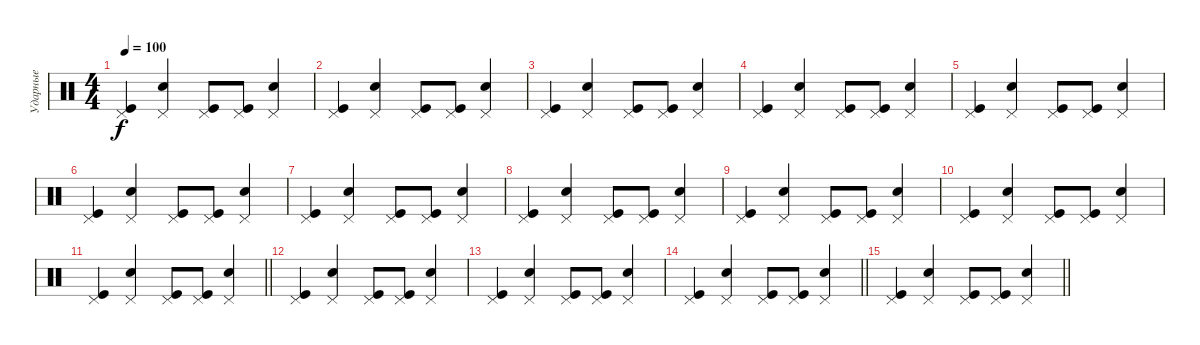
\track ("Ударные" "Ударные") {instrument percussion}
\staff {score}
\articulation defaults
\ts (4 4)
\tempo 100
\clef neutral
\ks c
("Pedal Hi-Hat (hit)" "Kick (hit)").4{dy f} ("Pedal Hi-Hat (hit)" "Snare (hit) 2").4 ("Pedal Hi-Hat (hit)" "Kick (hit)").8 ("Pedal Hi-Hat (hit)" "Kick (hit)").8 ("Pedal Hi-Hat (hit)" "Snare (hit) 2").4 |
("Pedal Hi-Hat (hit)" "Kick (hit)").4 ("Pedal Hi-Hat (hit)" "Snare (hit) 2").4 ("Pedal Hi-Hat (hit)" "Kick (hit)").8 ("Pedal Hi-Hat (hit)" "Kick (hit)").8 ("Pedal Hi-Hat (hit)" "Snare (hit) 2").4 |
("Pedal Hi-Hat (hit)" "Kick (hit)").4 ("Pedal Hi-Hat (hit)" "Snare (hit) 2").4 ("Pedal Hi-Hat (hit)" "Kick (hit)").8 ("Pedal Hi-Hat (hit)" "Kick (hit)").8 ("Pedal Hi-Hat (hit)" "Snare (hit) 2").4 |
("Pedal Hi-Hat (hit)" "Kick (hit)").4 ("Pedal Hi-Hat (hit)" "Snare (hit) 2").4 ("Pedal Hi-Hat (hit)" "Kick (hit)").8 ("Pedal Hi-Hat (hit)" "Kick (hit)").8 ("Pedal Hi-Hat (hit)" "Snare (hit) 2").4 |
("Pedal Hi-Hat (hit)" "Kick (hit)").4 ("Pedal Hi-Hat (hit)" "Snare (hit) 2").4 ("Pedal Hi-Hat (hit)" "Kick (hit)").8 ("Pedal Hi-Hat (hit)" "Kick (hit)").8 ("Pedal Hi-Hat (hit)" "Snare (hit) 2").4 |
("Pedal Hi-Hat (hit)" "Kick (hit)").4 ("Pedal Hi-Hat (hit)" "Snare (hit) 2").4 ("Pedal Hi-Hat (hit)" "Kick (hit)").8 ("Pedal Hi-Hat (hit)" "Kick (hit)").8 ("Pedal Hi-Hat (hit)" "Snare (hit) 2").4 |
("Pedal Hi-Hat (hit)" "Kick (hit)").4 ("Pedal Hi-Hat (hit)" "Snare (hit) 2").4 ("Pedal Hi-Hat (hit)" "Kick (hit)").8 ("Pedal Hi-Hat (hit)" "Kick (hit)").8 ("Pedal Hi-Hat (hit)" "Snare (hit) 2").4 |
("Pedal Hi-Hat (hit)" "Kick (hit)").4 ("Pedal Hi-Hat (hit)" "Snare (hit) 2").4 ("Pedal Hi-Hat (hit)" "Kick (hit)").8 ("Pedal Hi-Hat (hit)" "Kick (hit)").8 ("Pedal Hi-Hat (hit)" "Snare (hit) 2").4 |
("Pedal Hi-Hat (hit)" "Kick (hit)").4 ("Pedal Hi-Hat (hit)" "Snare (hit) 2").4 ("Pedal Hi-Hat (hit)" "Kick (hit)").8 ("Pedal Hi-Hat (hit)" "Kick (hit)").8 ("Pedal Hi-Hat (hit)" "Snare (hit) 2").4 |
("Pedal Hi-Hat (hit)" "Kick (hit)").4 ("Pedal Hi-Hat (hit)" "Snare (hit) 2").4 ("Pedal Hi-Hat (hit)" "Kick (hit)").8 ("Pedal Hi-Hat (hit)" "Kick (hit)").8 ("Pedal Hi-Hat (hit)" "Snare (hit) 2").4 |
\barLineRight lightlight
("Pedal Hi-Hat (hit)" "Kick (hit)").4 ("Pedal Hi-Hat (hit)" "Snare (hit) 2").4 ("Pedal Hi-Hat (hit)" "Kick (hit)").8 ("Pedal Hi-Hat (hit)" "Kick (hit)").8 ("Pedal Hi-Hat (hit)" "Snare (hit) 2").4 |
("Pedal Hi-Hat (hit)" "Kick (hit)").4 ("Pedal Hi-Hat (hit)" "Snare (hit) 2").4 ("Pedal Hi-Hat (hit)" "Kick (hit)").8 ("Pedal Hi-Hat (hit)" "Kick (hit)").8 ("Pedal Hi-Hat (hit)" "Snare (hit) 2").4 |
("Pedal Hi-Hat (hit)" "Kick (hit)").4 ("Pedal Hi-Hat (hit)" "Snare (hit) 2").4 ("Pedal Hi-Hat (hit)" "Kick (hit)").8 ("Pedal Hi-Hat (hit)" "Kick (hit)").8 ("Pedal Hi-Hat (hit)" "Snare (hit) 2").4 |
\barLineRight lightlight
("Pedal Hi-Hat (hit)" "Kick (hit)").4 ("Pedal Hi-Hat (hit)" "Snare (hit) 2").4 ("Pedal Hi-Hat (hit)" "Kick (hit)").8 ("Pedal Hi-Hat (hit)" "Kick (hit)").8 ("Pedal Hi-Hat (hit)" "Snare (hit) 2").4 |
\barLineRight lightlight
("Pedal Hi-Hat (hit)" "Kick (hit)").4 ("Pedal Hi-Hat (hit)" "Snare (hit) 2").4 ("Pedal Hi-Hat (hit)" "Kick (hit)").8 ("Pedal Hi-Hat (hit)" "Kick (hit)").8 ("Pedal Hi-Hat (hit)" "Snare (hit) 2").4
